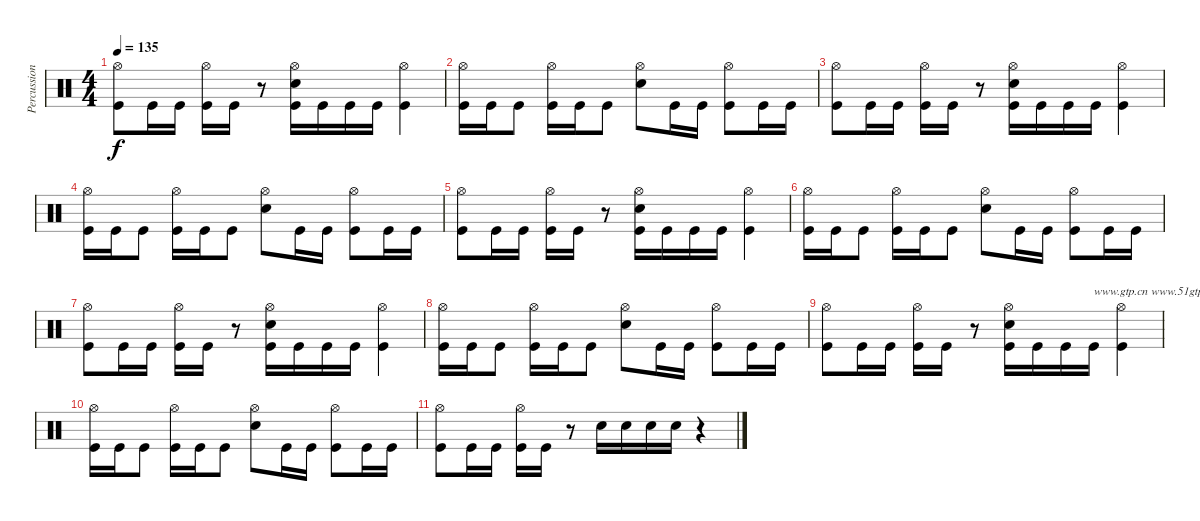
\track ("Percussion" "Percussion") {instrument percussion}
\staff {score}
\articulation defaults
\ts (4 4)
\tempo 135
\clef neutral
\ks c
("Hi-Hat (open)" "Kick (hit)").8{dy f} "Kick (hit)".16 "Kick (hit)".16 ("Hi-Hat (open)" "Kick (hit)").16 "Kick (hit)".16 r.8 ("Hi-Hat (open)" "Electric Snare (hit)" "Kick (hit)").16 "Kick (hit)".16 "Kick (hit)".16 "Kick (hit)".16 ("Hi-Hat (open)" "Kick (hit)").4 |
("Hi-Hat (open)" "Kick (hit)").16 "Kick (hit)".16 "Kick (hit)".8 ("Hi-Hat (open)" "Kick (hit)").16 "Kick (hit)".16 "Kick (hit)".8 ("Hi-Hat (open)" "Electric Snare (hit)").8 "Kick (hit)".16 "Kick (hit)".16 ("Hi-Hat (open)" "Kick (hit)").8 "Kick (hit)".16 "Kick (hit)".16 |
("Hi-Hat (open)" "Kick (hit)").8 "Kick (hit)".16 "Kick (hit)".16 ("Hi-Hat (open)" "Kick (hit)").16 "Kick (hit)".16 r.8 ("Hi-Hat (open)" "Electric Snare (hit)" "Kick (hit)").16 "Kick (hit)".16 "Kick (hit)".16 "Kick (hit)".16 ("Hi-Hat (open)" "Kick (hit)").4 |
("Hi-Hat (open)" "Kick (hit)").16 "Kick (hit)".16 "Kick (hit)".8 ("Hi-Hat (open)" "Kick (hit)").16 "Kick (hit)".16 "Kick (hit)".8 ("Hi-Hat (open)" "Electric Snare (hit)").8 "Kick (hit)".16 "Kick (hit)".16 ("Hi-Hat (open)" "Kick (hit)").8 "Kick (hit)".16 "Kick (hit)".16 |
("Hi-Hat (open)" "Kick (hit)").8 "Kick (hit)".16 "Kick (hit)".16 ("Hi-Hat (open)" "Kick (hit)").16 "Kick (hit)".16 r.8 ("Hi-Hat (open)" "Electric Snare (hit)" "Kick (hit)").16 "Kick (hit)".16 "Kick (hit)".16 "Kick (hit)".16 ("Hi-Hat (open)" "Kick (hit)").4 |
("Hi-Hat (open)" "Kick (hit)").16 "Kick (hit)".16 "Kick (hit)".8 ("Hi-Hat (open)" "Kick (hit)").16 "Kick (hit)".16 "Kick (hit)".8 ("Hi-Hat (open)" "Electric Snare (hit)").8 "Kick (hit)".16 "Kick (hit)".16 ("Hi-Hat (open)" "Kick (hit)").8 "Kick (hit)".16 "Kick (hit)".16 |
("Hi-Hat (open)" "Kick (hit)").8 "Kick (hit)".16 "Kick (hit)".16 ("Hi-Hat (open)" "Kick (hit)").16 "Kick (hit)".16 r.8 ("Hi-Hat (open)" "Electric Snare (hit)" "Kick (hit)").16 "Kick (hit)".16 "Kick (hit)".16 "Kick (hit)".16 ("Hi-Hat (open)" "Kick (hit)").4 |
("Hi-Hat (open)" "Kick (hit)").16 "Kick (hit)".16 "Kick (hit)".8 ("Hi-Hat (open)" "Kick (hit)").16 "Kick (hit)".16 "Kick (hit)".8 ("Hi-Hat (open)" "Electric Snare (hit)").8 "Kick (hit)".16 "Kick (hit)".16 ("Hi-Hat (open)" "Kick (hit)").8 "Kick (hit)".16 "Kick (hit)".16 |
("Hi-Hat (open)" "Kick (hit)").8 "Kick (hit)".16 "Kick (hit)".16 ("Hi-Hat (open)" "Kick (hit)").16 "Kick (hit)".16 r.8 ("Hi-Hat (open)" "Electric Snare (hit)" "Kick (hit)").16 "Kick (hit)".16 "Kick (hit)".16 "Kick (hit)".16{txt "www.gtp.cn www.51gtp.com联合为您提供优秀的GTP!"} ("Hi-Hat (open)" "Kick (hit)").4 |
("Hi-Hat (open)" "Kick (hit)").16 "Kick (hit)".16 "Kick (hit)".8 ("Hi-Hat (open)" "Kick (hit)").16 "Kick (hit)".16 "Kick (hit)".8 ("Hi-Hat (open)" "Electric Snare (hit)").8 "Kick (hit)".16 "Kick (hit)".16 ("Hi-Hat (open)" "Kick (hit)").8 "Kick (hit)".16 "Kick (hit)".16 |
("Hi-Hat (open)" "Kick (hit)").8 "Kick (hit)".16 "Kick (hit)".16 ("Hi-Hat (open)" "Kick (hit)").16 "Kick (hit)".16 r.8 "Electric Snare (hit)".16 "Electric Snare (hit)".16 "Electric Snare (hit)".16 "Electric Snare (hit)".16 r.4
